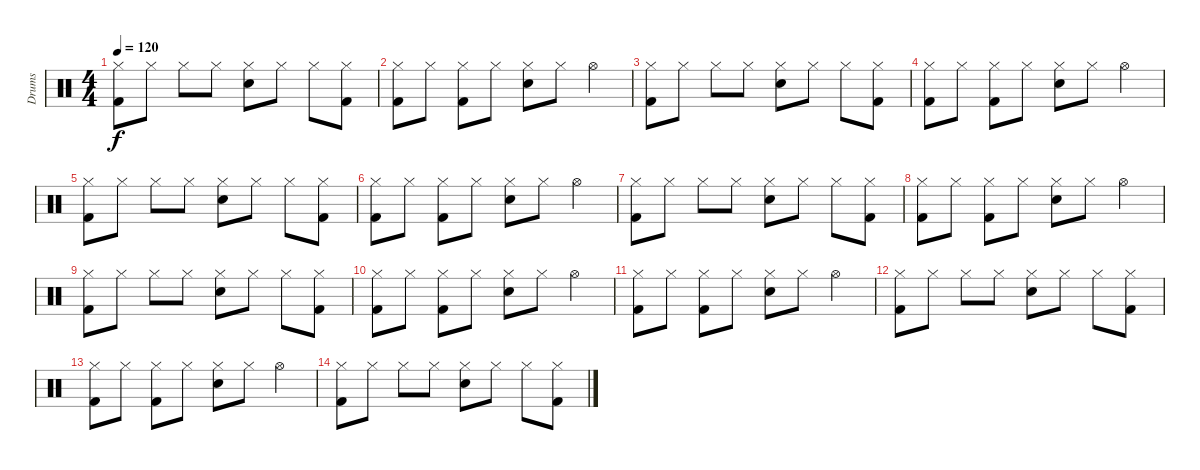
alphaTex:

\track ("Drums" "Drums") {instrument percussion}
\staff {score}
\articulation defaults
\ts (4 4)
\tempo 120
\clef neutral
\ks c
("Hi-Hat (closed)" "Kick (hit) 2").8{dy f} "Hi-Hat (closed)".8 "Hi-Hat (closed)".8 "Hi-Hat (closed)".8 ("Hi-Hat (closed)" "Electric Snare (hit)").8 "Hi-Hat (closed)".8 "Hi-Hat (closed)".8 ("Hi-Hat (closed)" "Kick (hit) 2").8 |
("Hi-Hat (closed)" "Kick (hit) 2").8 "Hi-Hat (closed)".8 ("Hi-Hat (closed)" "Kick (hit) 2").8 "Hi-Hat (closed)".8 ("Hi-Hat (closed)" "Electric Snare (hit)").8 "Hi-Hat (closed)".8 "Hi-Hat (open)".4 |
("Hi-Hat (closed)" "Kick (hit) 2").8 "Hi-Hat (closed)".8 "Hi-Hat (closed)".8 "Hi-Hat (closed)".8 ("Hi-Hat (closed)" "Electric Snare (hit)").8 "Hi-Hat (closed)".8 "Hi-Hat (closed)".8 ("Hi-Hat (closed)" "Kick (hit) 2").8 |
("Hi-Hat (closed)" "Kick (hit) 2").8 "Hi-Hat (closed)".8 ("Hi-Hat (closed)" "Kick (hit) 2").8 "Hi-Hat (closed)".8 ("Hi-Hat (closed)" "Electric Snare (hit)").8 "Hi-Hat (closed)".8 "Hi-Hat (open)".4 |
("Hi-Hat (closed)" "Kick (hit) 2").8 "Hi-Hat (closed)".8 "Hi-Hat (closed)".8 "Hi-Hat (closed)".8 ("Hi-Hat (closed)" "Electric Snare (hit)").8 "Hi-Hat (closed)".8 "Hi-Hat (closed)".8 ("Hi-Hat (closed)" "Kick (hit) 2").8 |
("Hi-Hat (closed)" "Kick (hit) 2").8 "Hi-Hat (closed)".8 ("Hi-Hat (closed)" "Kick (hit) 2").8 "Hi-Hat (closed)".8 ("Hi-Hat (closed)" "Electric Snare (hit)").8 "Hi-Hat (closed)".8 "Hi-Hat (open)".4 |
("Hi-Hat (closed)" "Kick (hit) 2").8 "Hi-Hat (closed)".8 "Hi-Hat (closed)".8 "Hi-Hat (closed)".8 ("Hi-Hat (closed)" "Electric Snare (hit)").8 "Hi-Hat (closed)".8 "Hi-Hat (closed)".8 ("Hi-Hat (closed)" "Kick (hit) 2").8 |
("Hi-Hat (closed)" "Kick (hit) 2").8 "Hi-Hat (closed)".8 ("Hi-Hat (closed)" "Kick (hit) 2").8 "Hi-Hat (closed)".8 ("Hi-Hat (closed)" "Electric Snare (hit)").8 "Hi-Hat (closed)".8 "Hi-Hat (open)".4 |
("Hi-Hat (closed)" "Kick (hit) 2").8 "Hi-Hat (closed)".8 "Hi-Hat (closed)".8 "Hi-Hat (closed)".8 ("Hi-Hat (closed)" "Electric Snare (hit)").8 "Hi-Hat (closed)".8 "Hi-Hat (closed)".8 ("Hi-Hat (closed)" "Kick (hit) 2").8 |
("Hi-Hat (closed)" "Kick (hit) 2").8 "Hi-Hat (closed)".8 ("Hi-Hat (closed)" "Kick (hit) 2").8 "Hi-Hat (closed)".8 ("Hi-Hat (closed)" "Electric Snare (hit)").8 "Hi-Hat (closed)".8 "Hi-Hat (open)".4 |
("Hi-Hat (closed)" "Kick (hit) 2").8 "Hi-Hat (closed)".8 ("Hi-Hat (closed)" "Kick (hit) 2").8 "Hi-Hat (closed)".8 ("Hi-Hat (closed)" "Electric Snare (hit)").8 "Hi-Hat (closed)".8 "Hi-Hat (open)".4 |
("Hi-Hat (closed)" "Kick (hit) 2").8 "Hi-Hat (closed)".8 "Hi-Hat (closed)".8 "Hi-Hat (closed)".8 ("Hi-Hat (closed)" "Electric Snare (hit)").8 "Hi-Hat (closed)".8 "Hi-Hat (closed)".8 ("Hi-Hat (closed)" "Kick (hit) 2").8 |
("Hi-Hat (closed)" "Kick (hit) 2").8 "Hi-Hat (closed)".8 ("Hi-Hat (closed)" "Kick (hit) 2").8 "Hi-Hat (closed)".8 ("Hi-Hat (closed)" "Electric Snare (hit)").8 "Hi-Hat (closed)".8 "Hi-Hat (open)".4 |
("Hi-Hat (closed)" "Kick (hit) 2").8 "Hi-Hat (closed)".8 "Hi-Hat (closed)".8 "Hi-Hat (closed)".8 ("Hi-Hat (closed)" "Electric Snare (hit)").8 "Hi-Hat (closed)".8 "Hi-Hat (closed)".8 ("Hi-Hat (closed)" "Kick (hit) 2").8
